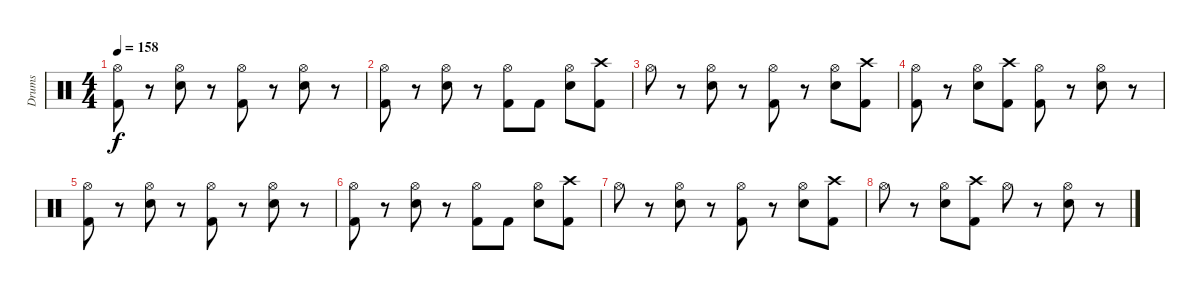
\track ("Drums" "Drums") {instrument percussion}
\staff {score}
\articulation defaults
\ts (4 4)
\tempo 158
\clef neutral
\ks c
("Hi-Hat (open)" "Kick (hit) 2").8{dy f} r.8 ("Hi-Hat (open)" "Snare (hit) 2").8 r.8 ("Hi-Hat (open)" "Kick (hit) 2").8 r.8 ("Hi-Hat (open)" "Snare (hit) 2").8 r.8 |
("Hi-Hat (open)" "Kick (hit) 2").8 r.8 ("Hi-Hat (open)" "Snare (hit) 2").8 r.8 ("Hi-Hat (open)" "Kick (hit) 2").8 "Kick (hit) 2".8 ("Hi-Hat (open)" "Snare (hit) 2").8 ("Crash high (hit)" "Kick (hit) 2").8 |
"Hi-Hat (open)".8 r.8 ("Hi-Hat (open)" "Snare (hit) 2").8 r.8 ("Hi-Hat (open)" "Kick (hit) 2").8 r.8 ("Hi-Hat (open)" "Snare (hit) 2").8 ("Crash high (hit)" "Kick (hit) 2").8 |
("Hi-Hat (open)" "Kick (hit) 2").8 r.8 ("Hi-Hat (open)" "Snare (hit) 2").8 ("Crash high (hit)" "Kick (hit) 2").8 ("Hi-Hat (open)" "Kick (hit) 2").8 r.8 ("Hi-Hat (open)" "Snare (hit) 2").8 r.8 |
("Hi-Hat (open)" "Kick (hit) 2").8 r.8 ("Hi-Hat (open)" "Snare (hit) 2").8 r.8 ("Hi-Hat (open)" "Kick (hit) 2").8 r.8 ("Hi-Hat (open)" "Snare (hit) 2").8 r.8 |
("Hi-Hat (open)" "Kick (hit) 2").8 r.8 ("Hi-Hat (open)" "Snare (hit) 2").8 r.8 ("Hi-Hat (open)" "Kick (hit) 2").8 "Kick (hit) 2".8 ("Hi-Hat (open)" "Snare (hit) 2").8 ("Crash high (hit)" "Kick (hit) 2").8 |
"Hi-Hat (open)".8 r.8 ("Hi-Hat (open)" "Snare (hit) 2").8 r.8 ("Hi-Hat (open)" "Kick (hit) 2").8 r.8 ("Hi-Hat (open)" "Snare (hit) 2").8 ("Crash high (hit)" "Kick (hit) 2").8 |
"Hi-Hat (open)".8 r.8 ("Hi-Hat (open)" "Snare (hit) 2").8 ("Crash high (hit)" "Kick (hit) 2").8 "Hi-Hat (open)".8 r.8 ("Hi-Hat (open)" "Snare (hit) 2").8 r.8
